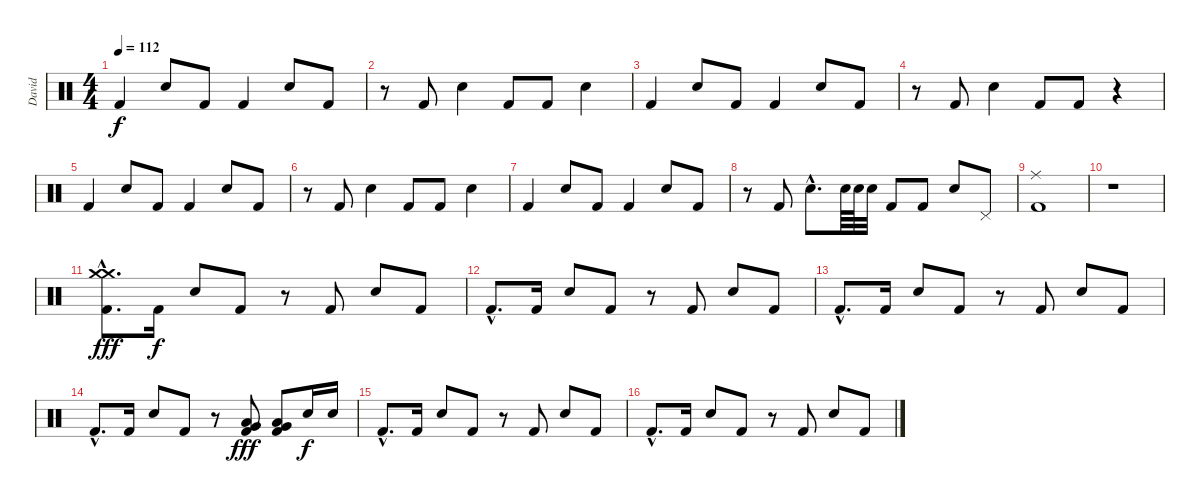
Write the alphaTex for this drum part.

\track ("David" "David") {instrument percussion}
\staff {score}
\articulation defaults
\ts (4 4)
\tempo 112
\clef neutral
\ks c "Kick (hit) 2".4{dy f} "Snare (hit) 2".8 "Kick (hit) 2".8 "Kick (hit) 2".4 "Snare (hit) 2".8 "Kick (hit) 2".8
|
r.8 "Kick (hit) 2".8 "Snare (hit) 2".4 "Kick (hit) 2".8 "Kick (hit) 2".8 "Snare (hit) 2".4 |
"Kick (hit) 2".4 "Snare (hit) 2".8 "Kick (hit) 2".8 "Kick (hit) 2".4 "Snare (hit) 2".8 "Kick (hit) 2".8 |
r.8 "Kick (hit) 2".8 "Snare (hit) 2".4 "Kick (hit) 2".8 "Kick (hit) 2".8 r.4 |
"Kick (hit) 2".4 "Snare (hit) 2".8 "Kick (hit) 2".8 "Kick (hit) 2".4 "Snare (hit) 2".8 "Kick (hit) 2".8 |
r.8 "Kick (hit) 2".8 "Snare (hit) 2".4 "Kick (hit) 2".8 "Kick (hit) 2".8 "Snare (hit) 2".4 |
"Kick (hit) 2".4 "Snare (hit) 2".8 "Kick (hit) 2".8 "Kick (hit) 2".4 "Snare (hit) 2".8 "Kick (hit) 2".8 |
r.8 "Kick (hit) 2".8 "Snare (hit) 2"{hac}.8{d} "Snare (hit) 2".64 "Snare (hit) 2".64 "Snare (hit) 2".32 "Kick (hit) 2".8 "Kick (hit) 2".8 "Snare (hit) 2".8 "Pedal Hi-Hat (hit)".8 |
("Ride (middle)" "Kick (hit) 2").1 |
r.1 |
("Crash medium (hit)"{hac} "Crash medium (hit)"{hac} "Kick (hit) 2"{hac}).8{d dy fff} "Kick (hit) 2".16{dy f} "Snare (hit) 2".8 "Kick (hit) 2".8 r.8 "Kick (hit) 2".8 "Snare (hit) 2".8 "Kick (hit) 2".8 |
"Kick (hit) 2"{hac}.8{d} "Kick (hit) 2".16 "Snare (hit) 2".8 "Kick (hit) 2".8 r.8 "Kick (hit) 2".8 "Snare (hit) 2".8 "Kick (hit) 2".8 |
"Kick (hit) 2"{hac}.8{d} "Kick (hit) 2".16 "Snare (hit) 2".8 "Kick (hit) 2".8 r.8 "Kick (hit) 2".8 "Snare (hit) 2".8 "Kick (hit) 2".8 |
"Kick (hit) 2"{hac}.8{d} "Kick (hit) 2".16 "Snare (hit) 2".8 "Kick (hit) 2".8 r.8 ("Low Floor Tom (hit)" "Very Low Tom (hit)" "Kick (hit) 2").8{dy fff} ("Low Floor Tom (hit)" "Very Low Tom (hit)" "Kick (hit) 2").8 "Snare (hit) 2".16{dy f} "Snare (hit) 2".16 |
"Kick (hit) 2"{hac}.8{d} "Kick (hit) 2".16 "Snare (hit) 2".8 "Kick (hit) 2".8 r.8 "Kick (hit) 2".8 "Snare (hit) 2".8 "Kick (hit) 2".8 |
"Kick (hit) 2"{hac}.8{d} "Kick (hit) 2".16 "Snare (hit) 2".8 "Kick (hit) 2".8 r.8 "Kick (hit) 2".8 "Snare (hit) 2".8 "Kick (hit) 2".8
